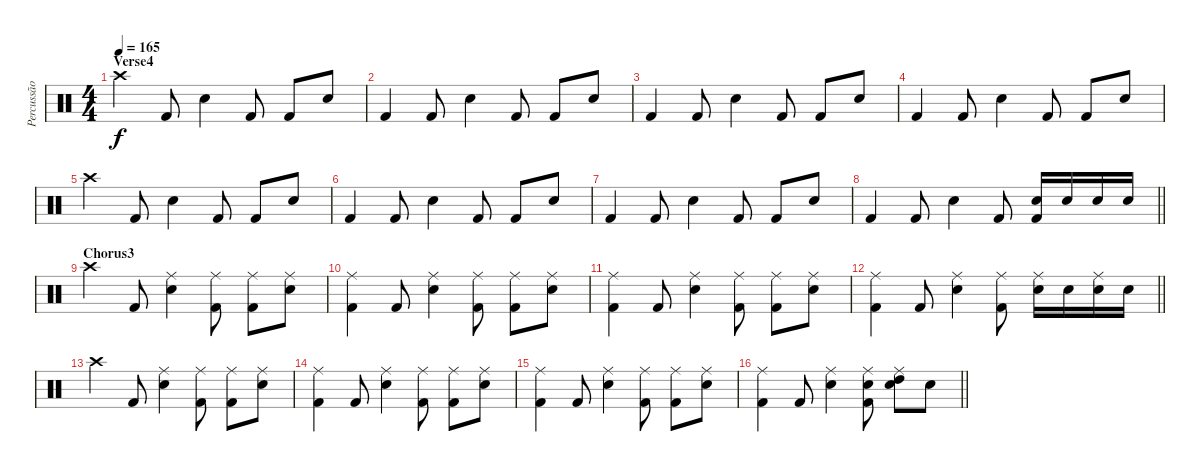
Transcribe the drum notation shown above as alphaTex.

\track ("Percussão" "Percussão") {instrument percussion}
\staff {score}
\articulation defaults
\ts (4 4)
\section ("" "Verse4")
\tempo 165
\clef neutral
\ks c "Crash high (hit)".4{dy f} "Kick (hit) 2".8 "Snare (hit) 2".4 "Kick (hit) 2".8 "Kick (hit) 2".8 "Snare (hit) 2".8
|
"Kick (hit) 2".4 "Kick (hit) 2".8 "Snare (hit) 2".4 "Kick (hit) 2".8 "Kick (hit) 2".8 "Snare (hit) 2".8 |
"Kick (hit) 2".4 "Kick (hit) 2".8 "Snare (hit) 2".4 "Kick (hit) 2".8 "Kick (hit) 2".8 "Snare (hit) 2".8 |
"Kick (hit) 2".4 "Kick (hit) 2".8 "Snare (hit) 2".4 "Kick (hit) 2".8 "Kick (hit) 2".8 "Snare (hit) 2".8 |
"Crash high (hit)".4 "Kick (hit) 2".8 "Snare (hit) 2".4 "Kick (hit) 2".8 "Kick (hit) 2".8 "Snare (hit) 2".8 |
"Kick (hit) 2".4 "Kick (hit) 2".8 "Snare (hit) 2".4 "Kick (hit) 2".8 "Kick (hit) 2".8 "Snare (hit) 2".8 |
"Kick (hit) 2".4 "Kick (hit) 2".8 "Snare (hit) 2".4 "Kick (hit) 2".8 "Kick (hit) 2".8 "Snare (hit) 2".8 |
\barLineRight lightlight "Kick (hit) 2".4 "Kick (hit) 2".8 "Snare (hit) 2".4 "Kick (hit) 2".8
("Snare (hit) 2" "Kick (hit) 2").16 "Snare (hit) 2".16 "Snare (hit) 2".16 "Snare (hit) 2".16 |
\section ("" "Chorus3")
"Crash high (hit)".4 "Kick (hit) 2".8 ("Ride (middle)" "Snare (hit) 2").4 ("Ride (middle)" "Kick (hit) 2").8 ("Ride (middle)" "Kick (hit) 2").8 ("Ride (middle)" "Snare (hit) 2").8 |
("Ride (middle)" "Kick (hit) 2").4 "Kick (hit) 2".8 ("Ride (middle)" "Snare (hit) 2").4 ("Ride (middle)" "Kick (hit) 2").8 ("Ride (middle)" "Kick (hit) 2").8 ("Ride (middle)" "Snare (hit) 2").8 |
("Ride (middle)" "Kick (hit) 2").4 "Kick (hit) 2".8 ("Ride (middle)" "Snare (hit) 2").4 ("Ride (middle)" "Kick (hit) 2").8 ("Ride (middle)" "Kick (hit) 2").8 ("Ride (middle)" "Snare (hit) 2").8 |
\barLineRight lightlight
("Ride (middle)" "Kick (hit) 2").4 "Kick (hit) 2".8 ("Ride (middle)" "Snare (hit) 2").4 ("Ride (middle)" "Kick (hit) 2").8 ("Ride (middle)" "Snare (hit) 2").16 "Snare (hit) 2".16 ("Ride (middle)" "Snare (hit) 2").16 "Snare (hit) 2".16 |
"Crash high (hit)".4 "Kick (hit) 2".8 ("Ride (middle)" "Snare (hit) 2").4 ("Ride (middle)" "Kick (hit) 2").8 ("Ride (middle)" "Kick (hit) 2").8 ("Ride (middle)" "Snare (hit) 2").8 |
("Ride (middle)" "Kick (hit) 2").4 "Kick (hit) 2".8 ("Ride (middle)" "Snare (hit) 2").4 ("Ride (middle)" "Kick (hit) 2").8 ("Ride (middle)" "Kick (hit) 2").8 ("Ride (middle)" "Snare (hit) 2").8 |
("Ride (middle)" "Kick (hit) 2").4 "Kick (hit) 2".8 ("Ride (middle)" "Snare (hit) 2").4 ("Ride (middle)" "Kick (hit) 2").8 ("Ride (middle)" "Kick (hit) 2").8 ("Ride (middle)" "Snare (hit) 2").8 |
\barLineRight lightlight
("Ride (middle)" "Kick (hit) 2").4 "Kick (hit) 2".8 ("Ride (middle)" "Snare (hit) 2").4 ("Ride (middle)" "Snare (hit) 2" "Kick (hit) 2").8 ("Ride (middle)" "Snare (hit) 2" "High Tom (hit)").8 "Snare (hit) 2".8
